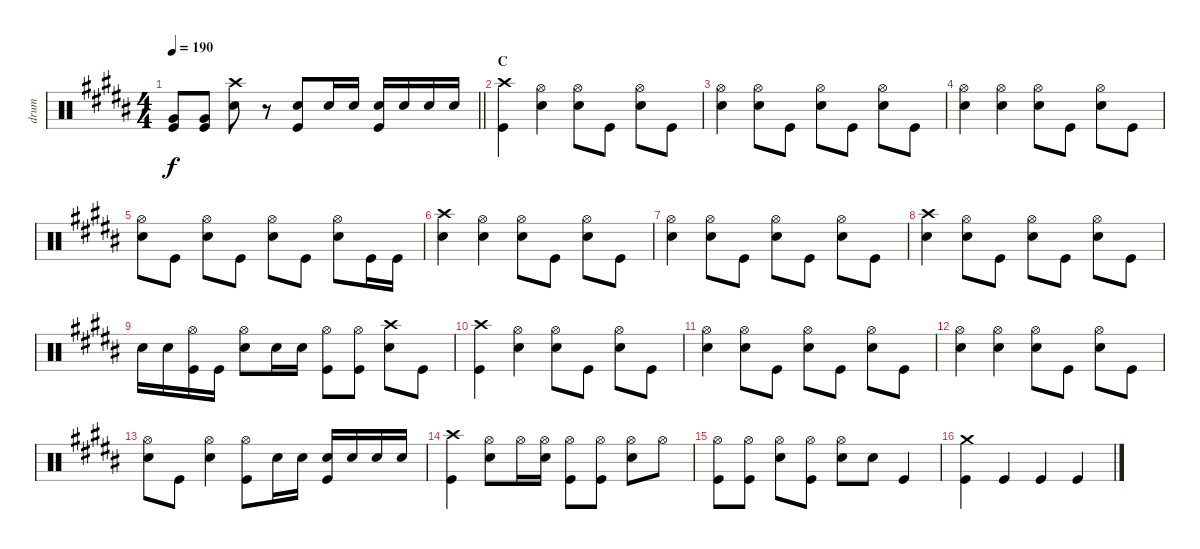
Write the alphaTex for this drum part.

\track ("drum" "drum") {instrument percussion}
\staff {score}
\articulation defaults
\ts (4 4)
\tempo 190
\clef neutral
\barLineRight lightlight
\ks b
("Very Low Tom (hit)" "Kick (hit)").8{dy f} ("Very Low Tom (hit)" "Kick (hit)").8 ("Crash high (hit)" "Snare (hit) 2").8 r.8 ("Snare (hit) 2" "Kick (hit)").8 "Snare (hit) 2".16 "Snare (hit) 2".16 ("Snare (hit) 2" "Kick (hit)").16 "Snare (hit) 2".16 "Snare (hit) 2".16 "Snare (hit) 2".16 |
\section ("" "C")
("Crash high (hit)" "Kick (hit)").4 ("Hi-Hat (open)" "Snare (hit) 2").4 ("Hi-Hat (open)" "Snare (hit) 2").8 "Kick (hit)".8 ("Hi-Hat (open)" "Snare (hit) 2").8 "Kick (hit)".8 |
("Hi-Hat (open)" "Snare (hit) 2").4 ("Hi-Hat (open)" "Snare (hit) 2").8 "Kick (hit)".8 ("Hi-Hat (open)" "Snare (hit) 2").8 "Kick (hit)".8 ("Hi-Hat (open)" "Snare (hit) 2").8 "Kick (hit)".8 |
("Hi-Hat (open)" "Snare (hit) 2").4 ("Hi-Hat (open)" "Snare (hit) 2").4 ("Hi-Hat (open)" "Snare (hit) 2").8 "Kick (hit)".8 ("Hi-Hat (open)" "Snare (hit) 2").8 "Kick (hit)".8 |
("Hi-Hat (open)" "Snare (hit) 2").8 "Kick (hit)".8 ("Hi-Hat (open)" "Snare (hit) 2").8 "Kick (hit)".8 ("Hi-Hat (open)" "Snare (hit) 2").8 "Kick (hit)".8 ("Hi-Hat (open)" "Snare (hit) 2").8 "Kick (hit)".16 "Kick (hit)".16 |
("Crash high (hit)" "Snare (hit) 2").4 ("Hi-Hat (open)" "Snare (hit) 2").4 ("Hi-Hat (open)" "Snare (hit) 2").8 "Kick (hit)".8 ("Hi-Hat (open)" "Snare (hit) 2").8 "Kick (hit)".8 |
("Hi-Hat (open)" "Snare (hit) 2").4 ("Hi-Hat (open)" "Snare (hit) 2").8 "Kick (hit)".8 ("Hi-Hat (open)" "Snare (hit) 2").8 "Kick (hit)".8 ("Hi-Hat (open)" "Snare (hit) 2").8 "Kick (hit)".8 |
("Crash high (hit)" "Snare (hit) 2").4 ("Hi-Hat (open)" "Snare (hit) 2").8 "Kick (hit)".8 ("Hi-Hat (open)" "Snare (hit) 2").8 "Kick (hit)".8 ("Hi-Hat (open)" "Snare (hit) 2").8 "Kick (hit)".8 |
"Snare (hit) 2".16 "Snare (hit) 2".16 ("Hi-Hat (open)" "Kick (hit)").16 "Kick (hit)".16 ("Hi-Hat (open)" "Snare (hit) 2").8 "Snare (hit) 2".16 "Snare (hit) 2".16 ("Hi-Hat (open)" "Kick (hit)").8 ("Hi-Hat (open)" "Kick (hit)").8 ("Crash high (hit)" "Snare (hit) 2").8 "Kick (hit)".8 |
("Crash high (hit)" "Kick (hit)").4 ("Hi-Hat (open)" "Snare (hit) 2").4 ("Hi-Hat (open)" "Snare (hit) 2").8 "Kick (hit)".8 ("Hi-Hat (open)" "Snare (hit) 2").8 "Kick (hit)".8 |
("Hi-Hat (open)" "Snare (hit) 2").4 ("Hi-Hat (open)" "Snare (hit) 2").8 "Kick (hit)".8 ("Hi-Hat (open)" "Snare (hit) 2").8 "Kick (hit)".8 ("Hi-Hat (open)" "Snare (hit) 2").8 "Kick (hit)".8 |
("Hi-Hat (open)" "Snare (hit) 2").4 ("Hi-Hat (open)" "Snare (hit) 2").4 ("Hi-Hat (open)" "Snare (hit) 2").8 "Kick (hit)".8 ("Hi-Hat (open)" "Snare (hit) 2").8 "Kick (hit)".8 |
("Hi-Hat (open)" "Snare (hit) 2").8 "Kick (hit)".8 ("Hi-Hat (open)" "Snare (hit) 2").4 ("Hi-Hat (open)" "Kick (hit)").8 "Snare (hit) 2".16 "Snare (hit) 2".16 ("Snare (hit) 2" "Kick (hit)").16 "Snare (hit) 2".16 "Snare (hit) 2".16 "Snare (hit) 2".16 |
("Crash high (hit)" "Kick (hit)").4 ("Hi-Hat (open)" "Snare (hit) 2").8 "Hi-Hat (open)".16 ("Hi-Hat (open)" "Snare (hit) 2").16 ("Hi-Hat (open)" "Kick (hit)").8 ("Hi-Hat (open)" "Kick (hit)").8 ("Hi-Hat (open)" "Snare (hit) 2").8 "Hi-Hat (open)".8 |
("Hi-Hat (open)" "Kick (hit)").8 ("Hi-Hat (open)" "Kick (hit)").8 ("Hi-Hat (open)" "Snare (hit) 2").8 ("Hi-Hat (open)" "Kick (hit)").8 ("Hi-Hat (open)" "Snare (hit) 2").8 "Snare (hit) 2".8 "Kick (hit)".4 |
("Crash medium (hit)" "Kick (hit)").4 "Kick (hit)".4 "Kick (hit)".4 "Kick (hit)".4
